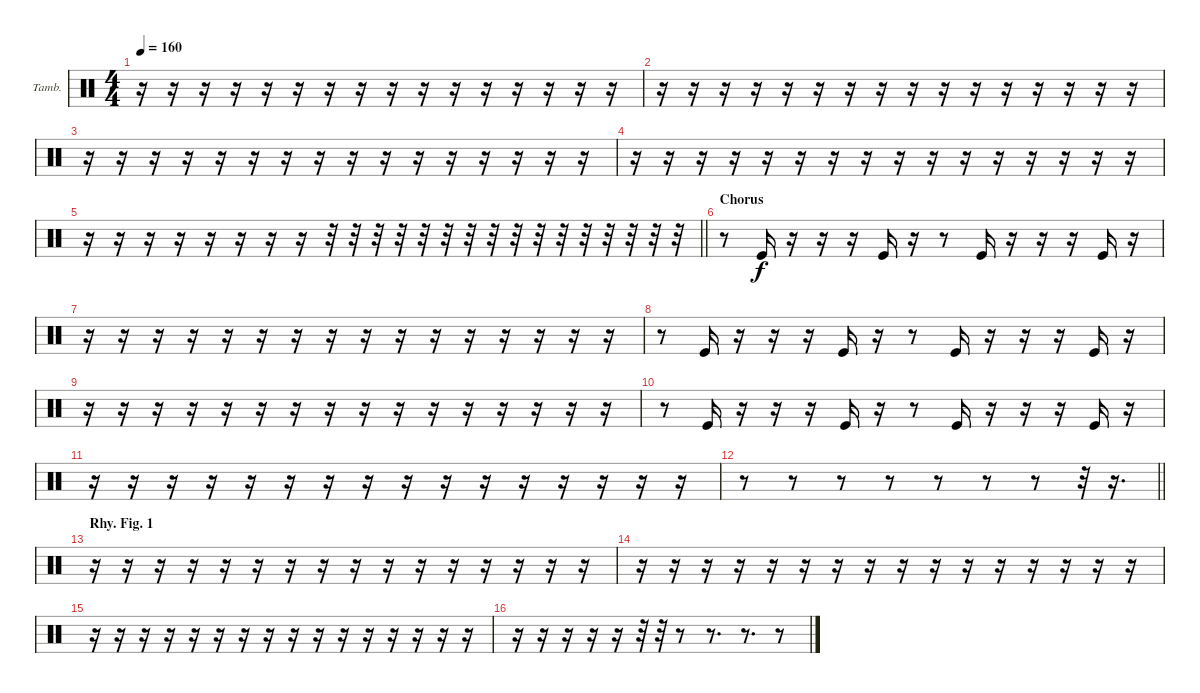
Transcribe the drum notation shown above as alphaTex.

\bracketExtendMode groupsimilarinstruments
\firstSystemTrackNameOrientation horizontal
\otherSystemsTrackNameOrientation horizontal
\track ("Tambourine" "Tamb.") {mute instrument percussion}
\staff {score}
\articulation defaults
\ts (4 4)
\tempo 160
\clef neutral
\ks c
r.16{dy f} r.16 r.16 r.16 r.16 r.16 r.16 r.16 r.16 r.16 r.16 r.16 r.16 r.16 r.16 r.16 |
r.16 r.16 r.16 r.16 r.16 r.16 r.16 r.16 r.16 r.16 r.16 r.16 r.16 r.16 r.16 r.16 |
r.16 r.16 r.16 r.16 r.16 r.16 r.16 r.16 r.16 r.16 r.16 r.16 r.16 r.16 r.16 r.16 |
r.16 r.16 r.16 r.16 r.16 r.16 r.16 r.16 r.16 r.16 r.16 r.16 r.16 r.16 r.16 r.16 |
\barLineRight lightlight
r.16 r.16 r.16 r.16 r.16 r.16 r.16 r.16 r.32 r.32 r.32 r.32 r.32 r.32 r.32 r.32 r.32 r.32 r.32 r.32 r.32 r.32 r.32 r.32 |
\section ("" "Chorus")
r.8 "Kick (hit)".16 r.16 r.16 r.16 "Kick (hit)".16 r.16 r.8 "Kick (hit)".16 r.16 r.16 r.16 "Kick (hit)".16 r.16 |
r.16 r.16 r.16 r.16 r.16 r.16 r.16 r.16 r.16 r.16 r.16 r.16 r.16 r.16 r.16 r.16 |
r.8 "Kick (hit)".16 r.16 r.16 r.16 "Kick (hit)".16 r.16 r.8 "Kick (hit)".16 r.16 r.16 r.16 "Kick (hit)".16 r.16 |
r.16 r.16 r.16 r.16 r.16 r.16 r.16 r.16 r.16 r.16 r.16 r.16 r.16 r.16 r.16 r.16 |
r.8 "Kick (hit)".16 r.16 r.16 r.16 "Kick (hit)".16 r.16 r.8 "Kick (hit)".16 r.16 r.16 r.16 "Kick (hit)".16 r.16 |
r.16 r.16 r.16 r.16 r.16 r.16 r.16 r.16 r.16 r.16 r.16 r.16 r.16 r.16 r.16 r.16 |
\barLineRight lightlight
r.8 r.8 r.8 r.8 r.8 r.8 r.8 r.32 r.16{d} |
\section ("" "Rhy. Fig. 1")
r.16 r.16 r.16 r.16 r.16 r.16 r.16 r.16 r.16 r.16 r.16 r.16 r.16 r.16 r.16 r.16 |
r.16 r.16 r.16 r.16 r.16 r.16 r.16 r.16 r.16 r.16 r.16 r.16 r.16 r.16 r.16 r.16 |
r.16 r.16 r.16 r.16 r.16 r.16 r.16 r.16 r.16 r.16 r.16 r.16 r.16 r.16 r.16 r.16 |
r.16 r.16 r.16 r.16 r.16 r.32 r.32 r.8 r.8{d} r.8{d} r.8
